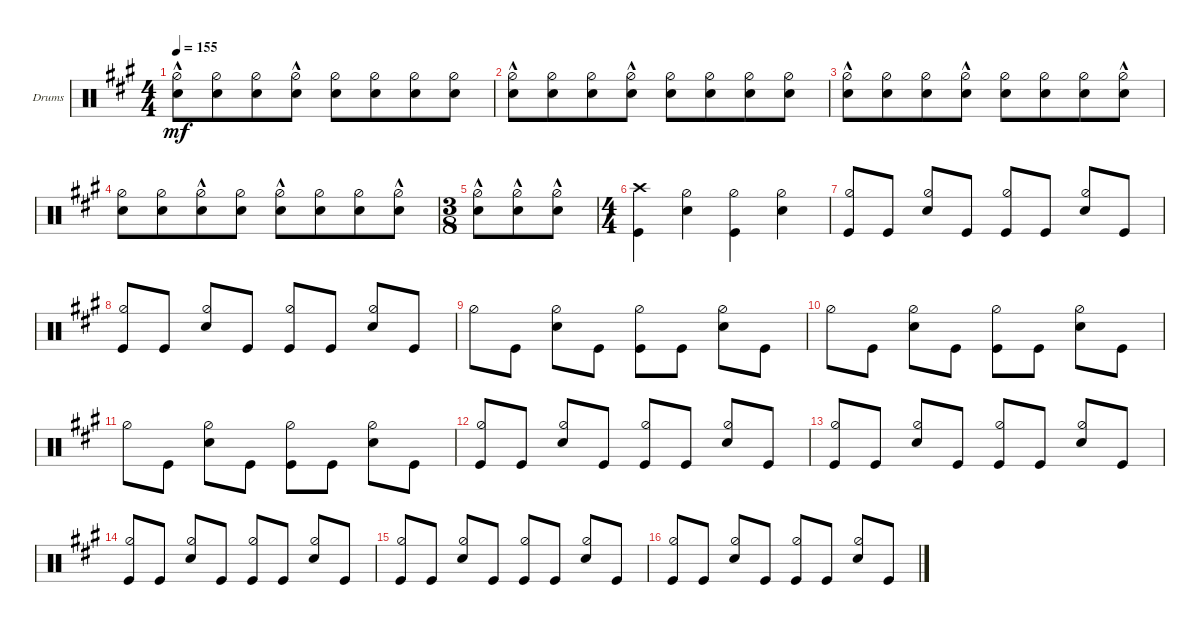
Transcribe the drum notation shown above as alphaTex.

\defaultSystemsLayout 4
\bracketExtendMode groupsimilarinstruments
\firstSystemTrackNameOrientation horizontal
\otherSystemsTrackNameOrientation horizontal
\track ("John Bonham" "Drums") {instrument percussion}
\staff {score}
\articulation defaults
\ts (4 4)
\tempo 155
\clef neutral
\ks a
("Hi-Hat (half)"{hac} "Snare (hit) 2"{hac}).8{dy mf beam merge} ("Hi-Hat (half)" "Snare (hit) 2").8{beam merge} ("Hi-Hat (half)" "Snare (hit) 2").8{beam merge} ("Hi-Hat (half)"{hac} "Snare (hit) 2"{hac}).8 ("Hi-Hat (half)" "Snare (hit) 2").8{beam merge} ("Hi-Hat (half)" "Snare (hit) 2").8{beam merge} ("Hi-Hat (half)" "Snare (hit) 2").8{beam merge} ("Hi-Hat (half)" "Snare (hit) 2").8 |
("Hi-Hat (half)"{hac} "Snare (hit) 2"{hac}).8{beam merge} ("Hi-Hat (half)" "Snare (hit) 2").8{beam merge} ("Hi-Hat (half)" "Snare (hit) 2").8{beam merge} ("Hi-Hat (half)"{hac} "Snare (hit) 2"{hac}).8 ("Hi-Hat (half)" "Snare (hit) 2").8{beam merge} ("Hi-Hat (half)" "Snare (hit) 2").8{beam merge} ("Hi-Hat (half)" "Snare (hit) 2").8{beam merge} ("Hi-Hat (half)" "Snare (hit) 2").8 |
("Hi-Hat (half)"{hac} "Snare (hit) 2"{hac}).8{beam merge} ("Hi-Hat (half)" "Snare (hit) 2").8{beam merge} ("Hi-Hat (half)" "Snare (hit) 2").8{beam merge} ("Hi-Hat (half)"{hac} "Snare (hit) 2"{hac}).8 ("Hi-Hat (half)" "Snare (hit) 2").8{beam merge} ("Hi-Hat (half)" "Snare (hit) 2").8{beam merge} ("Hi-Hat (half)" "Snare (hit) 2").8{beam merge} ("Hi-Hat (half)"{hac} "Snare (hit) 2"{hac}).8 |
("Hi-Hat (half)" "Snare (hit) 2").8{beam merge} ("Hi-Hat (half)" "Snare (hit) 2").8{beam merge} ("Hi-Hat (half)"{hac} "Snare (hit) 2"{hac}).8{beam merge} ("Hi-Hat (half)" "Snare (hit) 2").8 ("Hi-Hat (half)"{hac} "Snare (hit) 2"{hac}).8{beam merge} ("Hi-Hat (half)" "Snare (hit) 2").8{beam merge} ("Hi-Hat (half)" "Snare (hit) 2").8{beam merge} ("Hi-Hat (half)"{hac} "Snare (hit) 2"{hac}).8 |
\ts (3 8)
("Snare (hit) 2"{hac} "Hi-Hat (half)"{hac}).8 ("Snare (hit) 2"{hac} "Hi-Hat (half)"{hac}).8 ("Snare (hit) 2"{hac} "Hi-Hat (half)"{hac}).8 |
\ts (4 4)
("Kick (hit)" "Crash high (hit)").4 ("Hi-Hat (half)" "Snare (hit) 2").4 ("Hi-Hat (half)" "Kick (hit)").4 ("Hi-Hat (half)" "Snare (hit) 2").4 |
("Kick (hit)" "Hi-Hat (half)").8{beam invert} "Kick (hit)".8 ("Hi-Hat (half)" "Snare (hit) 2").8 "Kick (hit)".8{beam invert} ("Kick (hit)" "Hi-Hat (half)").8{beam invert} "Kick (hit)".8 ("Hi-Hat (half)" "Snare (hit) 2").8 "Kick (hit)".8{beam invert} |
("Kick (hit)" "Hi-Hat (half)").8{beam invert} "Kick (hit)".8 ("Hi-Hat (half)" "Snare (hit) 2").8 "Kick (hit)".8{beam invert} ("Kick (hit)" "Hi-Hat (half)").8{beam invert} "Kick (hit)".8 ("Hi-Hat (half)" "Snare (hit) 2").8 "Kick (hit)".8{beam invert} |
"Hi-Hat (half)".8 "Kick (hit)".8 ("Hi-Hat (half)" "Snare (hit) 2").8 "Kick (hit)".8 ("Hi-Hat (half)" "Kick (hit)").8 "Kick (hit)".8 ("Hi-Hat (half)" "Snare (hit) 2").8 "Kick (hit)".8 |
"Hi-Hat (half)".8 "Kick (hit)".8 ("Hi-Hat (half)" "Snare (hit) 2").8 "Kick (hit)".8 ("Hi-Hat (half)" "Kick (hit)").8 "Kick (hit)".8 ("Hi-Hat (half)" "Snare (hit) 2").8 "Kick (hit)".8 |
"Hi-Hat (half)".8 "Kick (hit)".8 ("Hi-Hat (half)" "Snare (hit) 2").8 "Kick (hit)".8 ("Hi-Hat (half)" "Kick (hit)").8 "Kick (hit)".8 ("Hi-Hat (half)" "Snare (hit) 2").8 "Kick (hit)".8 |
("Kick (hit)" "Hi-Hat (half)").8{beam invert} "Kick (hit)".8 ("Hi-Hat (half)" "Snare (hit) 2").8 "Kick (hit)".8{beam invert} ("Kick (hit)" "Hi-Hat (half)").8{beam invert} "Kick (hit)".8 ("Hi-Hat (half)" "Snare (hit) 2").8 "Kick (hit)".8{beam invert} |
("Kick (hit)" "Hi-Hat (half)").8{beam invert} "Kick (hit)".8 ("Hi-Hat (half)" "Snare (hit) 2").8 "Kick (hit)".8{beam invert} ("Kick (hit)" "Hi-Hat (half)").8{beam invert} "Kick (hit)".8 ("Hi-Hat (half)" "Snare (hit) 2").8 "Kick (hit)".8{beam invert} |
("Kick (hit)" "Hi-Hat (half)").8{beam invert} "Kick (hit)".8 ("Hi-Hat (half)" "Snare (hit) 2").8 "Kick (hit)".8{beam invert} ("Kick (hit)" "Hi-Hat (half)").8{beam invert} "Kick (hit)".8 ("Hi-Hat (half)" "Snare (hit) 2").8 "Kick (hit)".8{beam invert} |
("Kick (hit)" "Hi-Hat (half)").8{beam invert} "Kick (hit)".8 ("Hi-Hat (half)" "Snare (hit) 2").8 "Kick (hit)".8{beam invert} ("Kick (hit)" "Hi-Hat (half)").8{beam invert} "Kick (hit)".8 ("Hi-Hat (half)" "Snare (hit) 2").8 "Kick (hit)".8{beam invert} |
("Kick (hit)" "Hi-Hat (half)").8{beam invert} "Kick (hit)".8 ("Hi-Hat (half)" "Snare (hit) 2").8 "Kick (hit)".8{beam invert} ("Kick (hit)" "Hi-Hat (half)").8{beam invert} "Kick (hit)".8 ("Hi-Hat (half)" "Snare (hit) 2").8 "Kick (hit)".8{beam invert}
